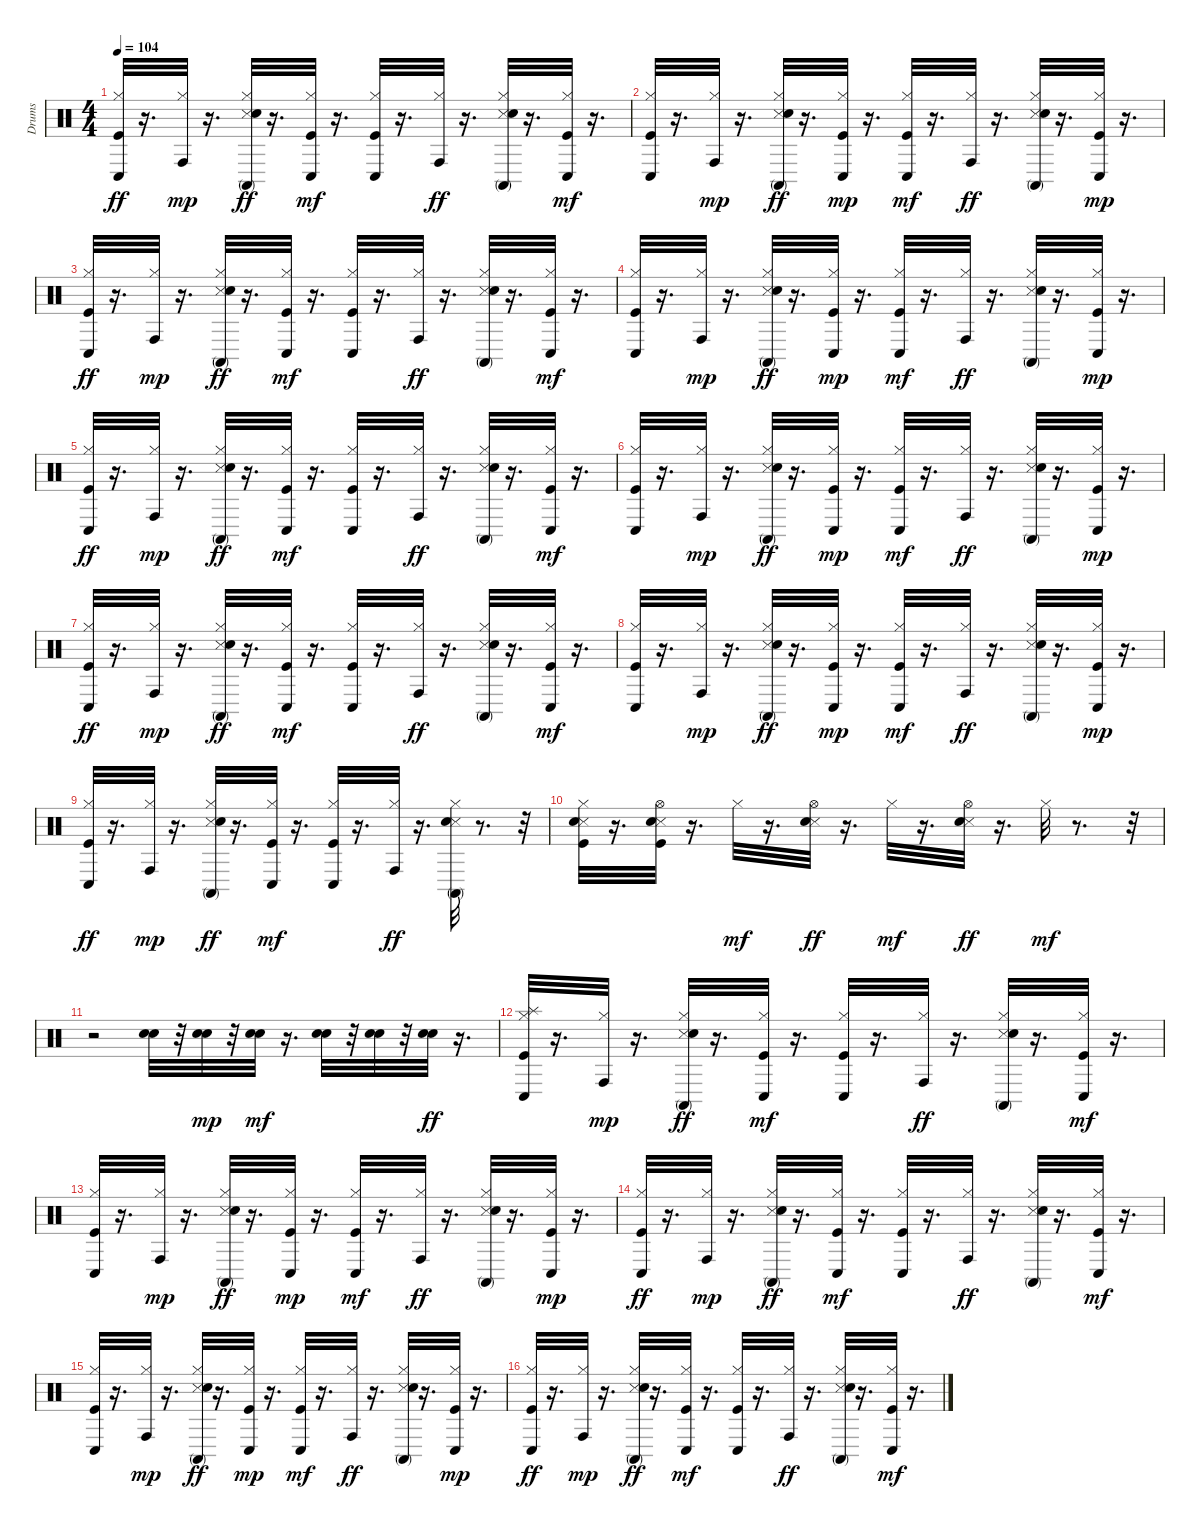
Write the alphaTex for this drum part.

\track ("Drums" "Drums") {instrument percussion}
\staff {score}
\articulation defaults
\ts (4 4)
\tempo 104
\clef neutral
\ks c
("Kick (hit)" "Hi-Hat (closed)" "Conga low (hit)").32{dy ff} r.16{d} ("Hi-Hat (closed)" "Conga high (hit)").32{dy mp} r.16{d} ("Snare (side stick) 3" "Hi-Hat (closed)" "Conga high (mute)" "Snare (hit) 2").32{dy ff} r.16{d} ("Kick (hit)" "Hi-Hat (closed)" "Conga low (hit)").32{dy mf} r.16{d} ("Kick (hit)" "Hi-Hat (closed)" "Conga low (hit)").32 r.16{d} ("Hi-Hat (closed)" "Conga high (hit)").32{dy ff} r.16{d} ("Snare (side stick) 3" "Hi-Hat (closed)" "Conga high (mute)" "Snare (hit) 2").32 r.16{d} ("Kick (hit)" "Hi-Hat (closed)" "Conga low (hit)").32{dy mf} r.16{d} |
("Kick (hit)" "Hi-Hat (closed)" "Conga low (hit)").32 r.16{d} ("Hi-Hat (closed)" "Conga high (hit)").32{dy mp} r.16{d} ("Snare (side stick) 3" "Hi-Hat (closed)" "Conga high (mute)" "Snare (hit) 2").32{dy ff} r.16{d} ("Kick (hit)" "Hi-Hat (closed)" "Conga low (hit)").32{dy mp} r.16{d} ("Kick (hit)" "Hi-Hat (closed)" "Conga low (hit)").32{dy mf} r.16{d} ("Hi-Hat (closed)" "Conga high (hit)").32{dy ff} r.16{d} ("Snare (side stick) 3" "Hi-Hat (closed)" "Conga high (mute)" "Snare (hit) 2").32 r.16{d} ("Kick (hit)" "Hi-Hat (closed)" "Conga low (hit)").32{dy mp} r.16{d} |
("Kick (hit)" "Hi-Hat (closed)" "Conga low (hit)").32{dy ff} r.16{d} ("Hi-Hat (closed)" "Conga high (hit)").32{dy mp} r.16{d} ("Snare (side stick) 3" "Hi-Hat (closed)" "Conga high (mute)" "Snare (hit) 2").32{dy ff} r.16{d} ("Kick (hit)" "Hi-Hat (closed)" "Conga low (hit)").32{dy mf} r.16{d} ("Kick (hit)" "Hi-Hat (closed)" "Conga low (hit)").32 r.16{d} ("Hi-Hat (closed)" "Conga high (hit)").32{dy ff} r.16{d} ("Snare (side stick) 3" "Hi-Hat (closed)" "Conga high (mute)" "Snare (hit) 2").32 r.16{d} ("Kick (hit)" "Hi-Hat (closed)" "Conga low (hit)").32{dy mf} r.16{d} |
("Kick (hit)" "Hi-Hat (closed)" "Conga low (hit)").32 r.16{d} ("Hi-Hat (closed)" "Conga high (hit)").32{dy mp} r.16{d} ("Snare (side stick) 3" "Hi-Hat (closed)" "Conga high (mute)" "Snare (hit) 2").32{dy ff} r.16{d} ("Kick (hit)" "Hi-Hat (closed)" "Conga low (hit)").32{dy mp} r.16{d} ("Kick (hit)" "Hi-Hat (closed)" "Conga low (hit)").32{dy mf} r.16{d} ("Hi-Hat (closed)" "Conga high (hit)").32{dy ff} r.16{d} ("Snare (side stick) 3" "Hi-Hat (closed)" "Conga high (mute)" "Snare (hit) 2").32 r.16{d} ("Kick (hit)" "Hi-Hat (closed)" "Conga low (hit)").32{dy mp} r.16{d} |
("Kick (hit)" "Hi-Hat (closed)" "Conga low (hit)").32{dy ff} r.16{d} ("Hi-Hat (closed)" "Conga high (hit)").32{dy mp} r.16{d} ("Snare (side stick) 3" "Hi-Hat (closed)" "Conga high (mute)" "Snare (hit) 2").32{dy ff} r.16{d} ("Kick (hit)" "Hi-Hat (closed)" "Conga low (hit)").32{dy mf} r.16{d} ("Kick (hit)" "Hi-Hat (closed)" "Conga low (hit)").32 r.16{d} ("Hi-Hat (closed)" "Conga high (hit)").32{dy ff} r.16{d} ("Snare (side stick) 3" "Hi-Hat (closed)" "Conga high (mute)" "Snare (hit) 2").32 r.16{d} ("Kick (hit)" "Hi-Hat (closed)" "Conga low (hit)").32{dy mf} r.16{d} |
("Kick (hit)" "Hi-Hat (closed)" "Conga low (hit)").32 r.16{d} ("Hi-Hat (closed)" "Conga high (hit)").32{dy mp} r.16{d} ("Snare (side stick) 3" "Hi-Hat (closed)" "Conga high (mute)" "Snare (hit) 2").32{dy ff} r.16{d} ("Kick (hit)" "Hi-Hat (closed)" "Conga low (hit)").32{dy mp} r.16{d} ("Kick (hit)" "Hi-Hat (closed)" "Conga low (hit)").32{dy mf} r.16{d} ("Hi-Hat (closed)" "Conga high (hit)").32{dy ff} r.16{d} ("Snare (side stick) 3" "Hi-Hat (closed)" "Conga high (mute)" "Snare (hit) 2").32 r.16{d} ("Kick (hit)" "Hi-Hat (closed)" "Conga low (hit)").32{dy mp} r.16{d} |
("Kick (hit)" "Hi-Hat (closed)" "Conga low (hit)").32{dy ff} r.16{d} ("Hi-Hat (closed)" "Conga high (hit)").32{dy mp} r.16{d} ("Snare (side stick) 3" "Hi-Hat (closed)" "Conga high (mute)" "Snare (hit) 2").32{dy ff} r.16{d} ("Kick (hit)" "Hi-Hat (closed)" "Conga low (hit)").32{dy mf} r.16{d} ("Kick (hit)" "Hi-Hat (closed)" "Conga low (hit)").32 r.16{d} ("Hi-Hat (closed)" "Conga high (hit)").32{dy ff} r.16{d} ("Snare (side stick) 3" "Hi-Hat (closed)" "Conga high (mute)" "Snare (hit) 2").32 r.16{d} ("Kick (hit)" "Hi-Hat (closed)" "Conga low (hit)").32{dy mf} r.16{d} |
("Kick (hit)" "Hi-Hat (closed)" "Conga low (hit)").32 r.16{d} ("Hi-Hat (closed)" "Conga high (hit)").32{dy mp} r.16{d} ("Snare (side stick) 3" "Hi-Hat (closed)" "Conga high (mute)" "Snare (hit) 2").32{dy ff} r.16{d} ("Kick (hit)" "Hi-Hat (closed)" "Conga low (hit)").32{dy mp} r.16{d} ("Kick (hit)" "Hi-Hat (closed)" "Conga low (hit)").32{dy mf} r.16{d} ("Hi-Hat (closed)" "Conga high (hit)").32{dy ff} r.16{d} ("Snare (side stick) 3" "Hi-Hat (closed)" "Conga high (mute)" "Snare (hit) 2").32 r.16{d} ("Kick (hit)" "Hi-Hat (closed)" "Conga low (hit)").32{dy mp} r.16{d} |
("Kick (hit)" "Hi-Hat (closed)" "Conga low (hit)").32{dy ff} r.16{d} ("Hi-Hat (closed)" "Conga high (hit)").32{dy mp} r.16{d} ("Snare (side stick) 3" "Hi-Hat (closed)" "Conga high (mute)" "Snare (hit) 2").32{dy ff} r.16{d} ("Kick (hit)" "Hi-Hat (closed)" "Conga low (hit)").32{dy mf} r.16{d} ("Kick (hit)" "Hi-Hat (closed)" "Conga low (hit)").32 r.16{d} ("Hi-Hat (closed)" "Conga high (hit)").32{dy ff} r.16{d} ("Snare (side stick) 3" "Hi-Hat (closed)" "Conga high (mute)" "Snare (hit) 2").32 r.8{d} r.32 |
("Snare (side stick) 3" "Kick (hit)" "Hi-Hat (closed)" "Snare (hit) 2").32 r.16{d} ("Hi-Hat (open)" "Snare (side stick) 3" "Kick (hit)" "Snare (hit) 2").32 r.16{d} "Hi-Hat (closed)".32{dy mf} r.16{d} ("Hi-Hat (open)" "Snare (side stick) 3" "Snare (hit) 2").32{dy ff} r.16{d} "Hi-Hat (closed)".32{dy mf} r.16{d} ("Hi-Hat (open)" "Snare (side stick) 3" "Snare (hit) 2").32{dy ff} r.16{d} "Hi-Hat (closed)".32{dy mf} r.8{d} r.32 |
r.2 ("Snare (hit) 2" "Hand Clap (hit)").32 r.32 ("Snare (hit) 2" "Hand Clap (hit)").32{dy mp} r.32 ("Snare (hit) 2" "Hand Clap (hit)").32{dy mf} r.16{d} ("Snare (hit) 2" "Hand Clap (hit)").32 r.32 ("Snare (hit) 2" "Hand Clap (hit)").32 r.32 ("Snare (hit) 2" "Hand Clap (hit)").32{dy ff} r.16{d} |
("Splash (hit)" "Kick (hit)" "Hi-Hat (closed)" "Conga low (hit)").32 r.16{d} ("Hi-Hat (closed)" "Conga high (hit)").32{dy mp} r.16{d} ("Snare (side stick) 3" "Hi-Hat (closed)" "Conga high (mute)" "Snare (hit) 2").32{dy ff} r.16{d} ("Kick (hit)" "Hi-Hat (closed)" "Conga low (hit)").32{dy mf} r.16{d} ("Kick (hit)" "Hi-Hat (closed)" "Conga low (hit)").32 r.16{d} ("Hi-Hat (closed)" "Conga high (hit)").32{dy ff} r.16{d} ("Snare (side stick) 3" "Hi-Hat (closed)" "Conga high (mute)" "Snare (hit) 2").32 r.16{d} ("Kick (hit)" "Hi-Hat (closed)" "Conga low (hit)").32{dy mf} r.16{d} |
("Kick (hit)" "Hi-Hat (closed)" "Conga low (hit)").32 r.16{d} ("Hi-Hat (closed)" "Conga high (hit)").32{dy mp} r.16{d} ("Snare (side stick) 3" "Hi-Hat (closed)" "Conga high (mute)" "Snare (hit) 2").32{dy ff} r.16{d} ("Kick (hit)" "Hi-Hat (closed)" "Conga low (hit)").32{dy mp} r.16{d} ("Kick (hit)" "Hi-Hat (closed)" "Conga low (hit)").32{dy mf} r.16{d} ("Hi-Hat (closed)" "Conga high (hit)").32{dy ff} r.16{d} ("Snare (side stick) 3" "Hi-Hat (closed)" "Conga high (mute)" "Snare (hit) 2").32 r.16{d} ("Kick (hit)" "Hi-Hat (closed)" "Conga low (hit)").32{dy mp} r.16{d} |
("Kick (hit)" "Hi-Hat (closed)" "Conga low (hit)").32{dy ff} r.16{d} ("Hi-Hat (closed)" "Conga high (hit)").32{dy mp} r.16{d} ("Snare (side stick) 3" "Hi-Hat (closed)" "Conga high (mute)" "Snare (hit) 2").32{dy ff} r.16{d} ("Kick (hit)" "Hi-Hat (closed)" "Conga low (hit)").32{dy mf} r.16{d} ("Kick (hit)" "Hi-Hat (closed)" "Conga low (hit)").32 r.16{d} ("Hi-Hat (closed)" "Conga high (hit)").32{dy ff} r.16{d} ("Snare (side stick) 3" "Hi-Hat (closed)" "Conga high (mute)" "Snare (hit) 2").32 r.16{d} ("Kick (hit)" "Hi-Hat (closed)" "Conga low (hit)").32{dy mf} r.16{d} |
("Kick (hit)" "Hi-Hat (closed)" "Conga low (hit)").32 r.16{d} ("Hi-Hat (closed)" "Conga high (hit)").32{dy mp} r.16{d} ("Snare (side stick) 3" "Hi-Hat (closed)" "Conga high (mute)" "Snare (hit) 2").32{dy ff} r.16{d} ("Kick (hit)" "Hi-Hat (closed)" "Conga low (hit)").32{dy mp} r.16{d} ("Kick (hit)" "Hi-Hat (closed)" "Conga low (hit)").32{dy mf} r.16{d} ("Hi-Hat (closed)" "Conga high (hit)").32{dy ff} r.16{d} ("Snare (side stick) 3" "Hi-Hat (closed)" "Conga high (mute)" "Snare (hit) 2").32 r.16{d} ("Kick (hit)" "Hi-Hat (closed)" "Conga low (hit)").32{dy mp} r.16{d} |
("Kick (hit)" "Hi-Hat (closed)" "Conga low (hit)").32{dy ff} r.16{d} ("Hi-Hat (closed)" "Conga high (hit)").32{dy mp} r.16{d} ("Snare (side stick) 3" "Hi-Hat (closed)" "Conga high (mute)" "Snare (hit) 2").32{dy ff} r.16{d} ("Kick (hit)" "Hi-Hat (closed)" "Conga low (hit)").32{dy mf} r.16{d} ("Kick (hit)" "Hi-Hat (closed)" "Conga low (hit)").32 r.16{d} ("Hi-Hat (closed)" "Conga high (hit)").32{dy ff} r.16{d} ("Snare (side stick) 3" "Hi-Hat (closed)" "Conga high (mute)" "Snare (hit) 2").32 r.16{d} ("Kick (hit)" "Hi-Hat (closed)" "Conga low (hit)").32{dy mf} r.16{d}
